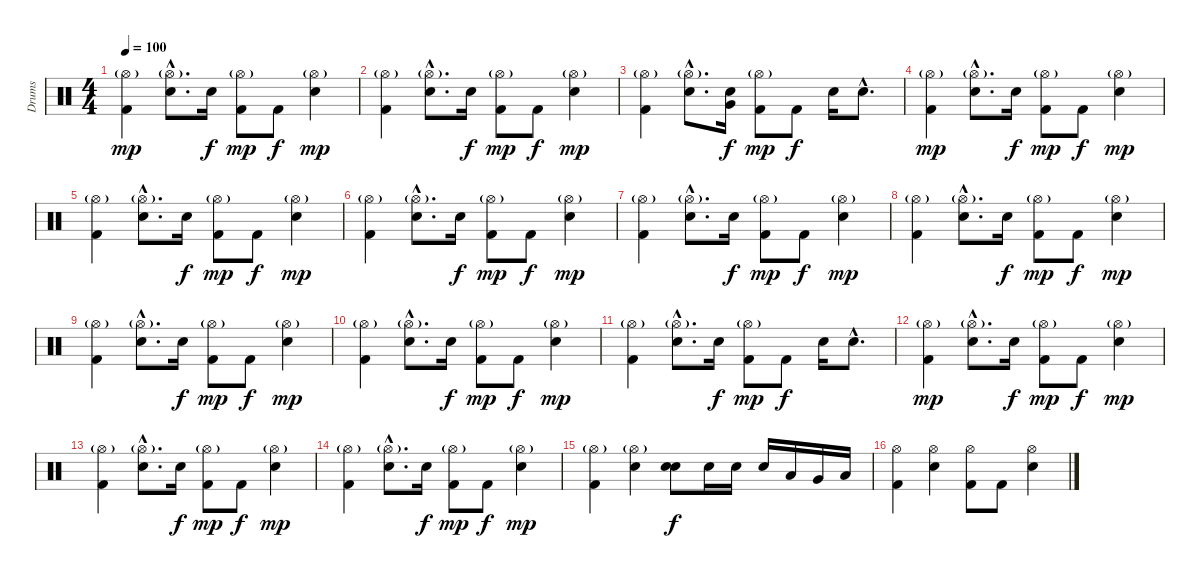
\track ("Drums" "Drums") {instrument percussion}
\staff {score}
\articulation defaults
\ts (4 4)
\tempo 100
\clef neutral
\ks c
("Hi-Hat (open)"{g} "Kick (hit) 2").4{dy mp} ("Hi-Hat (open)"{g hac} "Electric Snare (hit)"{hac}).8{d} "Electric Snare (hit)".16{dy f} ("Hi-Hat (open)"{g} "Kick (hit) 2").8{dy mp} "Kick (hit) 2".8{dy f} ("Hi-Hat (open)"{g} "Electric Snare (hit)").4{dy mp} |
("Hi-Hat (open)"{g} "Kick (hit) 2").4 ("Hi-Hat (open)"{g hac} "Electric Snare (hit)"{hac}).8{d} "Electric Snare (hit)".16{dy f} ("Hi-Hat (open)"{g} "Kick (hit) 2").8{dy mp} "Kick (hit) 2".8{dy f} ("Hi-Hat (open)"{g} "Electric Snare (hit)").4{dy mp} |
("Hi-Hat (open)"{g} "Kick (hit) 2").4 ("Hi-Hat (open)"{g hac} "Electric Snare (hit)"{hac}).8{d} ("Very Low Tom (hit)" "Electric Snare (hit)").16{dy f} ("Hi-Hat (open)"{g} "Kick (hit) 2").8{dy mp} "Kick (hit) 2".8{dy f} "Electric Snare (hit)".16 "Electric Snare (hit)"{hac}.8{d} |
("Hi-Hat (open)"{g} "Kick (hit) 2").4{dy mp} ("Hi-Hat (open)"{g hac} "Electric Snare (hit)"{hac}).8{d} "Electric Snare (hit)".16{dy f} ("Hi-Hat (open)"{g} "Kick (hit) 2").8{dy mp} "Kick (hit) 2".8{dy f} ("Hi-Hat (open)"{g} "Electric Snare (hit)").4{dy mp} |
("Hi-Hat (open)"{g} "Kick (hit) 2").4 ("Hi-Hat (open)"{g hac} "Electric Snare (hit)"{hac}).8{d} "Electric Snare (hit)".16{dy f} ("Hi-Hat (open)"{g} "Kick (hit) 2").8{dy mp} "Kick (hit) 2".8{dy f} ("Hi-Hat (open)"{g} "Electric Snare (hit)").4{dy mp} |
("Hi-Hat (open)"{g} "Kick (hit) 2").4 ("Hi-Hat (open)"{g hac} "Electric Snare (hit)"{hac}).8{d} "Electric Snare (hit)".16{dy f} ("Hi-Hat (open)"{g} "Kick (hit) 2").8{dy mp} "Kick (hit) 2".8{dy f} ("Hi-Hat (open)"{g} "Electric Snare (hit)").4{dy mp} |
("Hi-Hat (open)"{g} "Kick (hit) 2").4 ("Hi-Hat (open)"{g hac} "Electric Snare (hit)"{hac}).8{d} "Electric Snare (hit)".16{dy f} ("Hi-Hat (open)"{g} "Kick (hit) 2").8{dy mp} "Kick (hit) 2".8{dy f} ("Hi-Hat (open)"{g} "Electric Snare (hit)").4{dy mp} |
("Hi-Hat (open)"{g} "Kick (hit) 2").4 ("Hi-Hat (open)"{g hac} "Electric Snare (hit)"{hac}).8{d} "Electric Snare (hit)".16{dy f} ("Hi-Hat (open)"{g} "Kick (hit) 2").8{dy mp} "Kick (hit) 2".8{dy f} ("Hi-Hat (open)"{g} "Electric Snare (hit)").4{dy mp} |
("Hi-Hat (open)"{g} "Kick (hit) 2").4 ("Hi-Hat (open)"{g hac} "Electric Snare (hit)"{hac}).8{d} "Electric Snare (hit)".16{dy f} ("Hi-Hat (open)"{g} "Kick (hit) 2").8{dy mp} "Kick (hit) 2".8{dy f} ("Hi-Hat (open)"{g} "Electric Snare (hit)").4{dy mp} |
("Hi-Hat (open)"{g} "Kick (hit) 2").4 ("Hi-Hat (open)"{g hac} "Electric Snare (hit)"{hac}).8{d} "Electric Snare (hit)".16{dy f} ("Hi-Hat (open)"{g} "Kick (hit) 2").8{dy mp} "Kick (hit) 2".8{dy f} ("Hi-Hat (open)"{g} "Electric Snare (hit)").4{dy mp} |
("Hi-Hat (open)"{g} "Kick (hit) 2").4 ("Hi-Hat (open)"{g hac} "Electric Snare (hit)"{hac}).8{d} "Electric Snare (hit)".16{dy f} ("Hi-Hat (open)"{g} "Kick (hit) 2").8{dy mp} "Kick (hit) 2".8{dy f} "Electric Snare (hit)".16 "Electric Snare (hit)"{hac}.8{d} |
("Hi-Hat (open)"{g} "Kick (hit) 2").4{dy mp} ("Hi-Hat (open)"{g hac} "Electric Snare (hit)"{hac}).8{d} "Electric Snare (hit)".16{dy f} ("Hi-Hat (open)"{g} "Kick (hit) 2").8{dy mp} "Kick (hit) 2".8{dy f} ("Hi-Hat (open)"{g} "Electric Snare (hit)").4{dy mp} |
("Hi-Hat (open)"{g} "Kick (hit) 2").4 ("Hi-Hat (open)"{g hac} "Electric Snare (hit)"{hac}).8{d} "Electric Snare (hit)".16{dy f} ("Hi-Hat (open)"{g} "Kick (hit) 2").8{dy mp} "Kick (hit) 2".8{dy f} ("Hi-Hat (open)"{g} "Electric Snare (hit)").4{dy mp} |
("Hi-Hat (open)"{g} "Kick (hit) 2").4 ("Hi-Hat (open)"{g hac} "Electric Snare (hit)"{hac}).8{d} "Electric Snare (hit)".16{dy f} ("Hi-Hat (open)"{g} "Kick (hit) 2").8{dy mp} "Kick (hit) 2".8{dy f} ("Hi-Hat (open)"{g} "Electric Snare (hit)").4{dy mp} |
("Hi-Hat (open)"{g} "Kick (hit) 2").4 ("Hi-Hat (open)"{g} "Electric Snare (hit)").4 ("Electric Snare (hit)" "Electric Snare (hit)").8{bd 240 dy f} "Electric Snare (hit)".16 "Electric Snare (hit)".16 "Electric Snare (hit)".16 "Low Tom (hit)".16 "Very Low Tom (hit)".16 "Low Floor Tom (hit)".16 |
("Hi-Hat (open)" "Kick (hit) 2").4 ("Hi-Hat (open)" "Electric Snare (hit)").4 ("Hi-Hat (open)" "Kick (hit) 2").8 "Kick (hit) 2".8 ("Hi-Hat (open)" "Electric Snare (hit)").4
